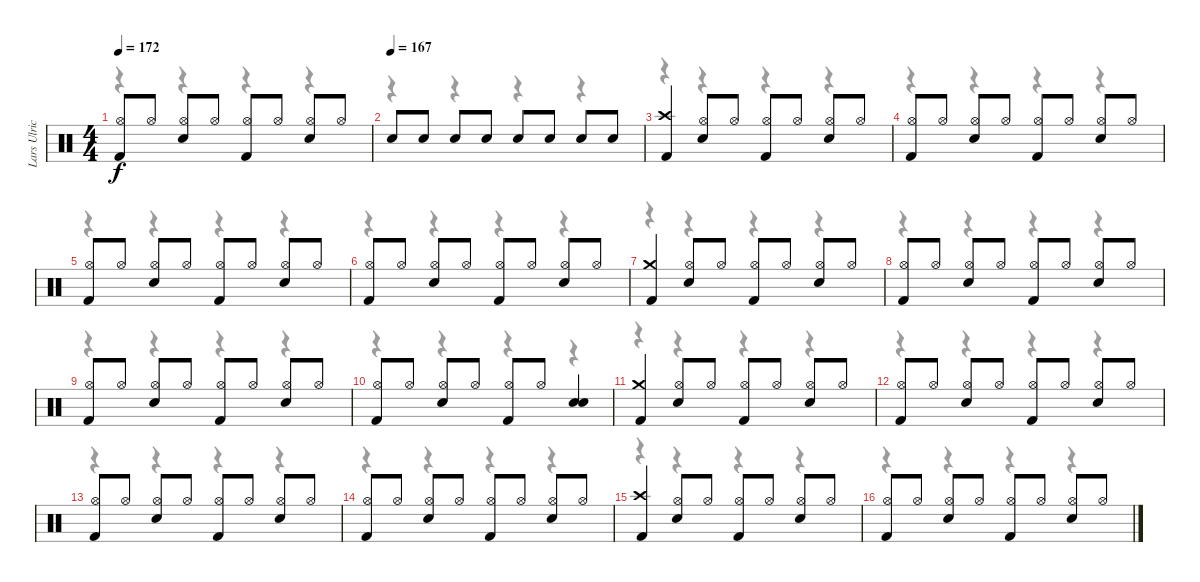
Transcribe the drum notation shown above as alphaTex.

\track ("Lars Ulrich" "Lars Ulric") {instrument percussion}
\staff {score}
\articulation defaults
\voice
\ts (4 4)
\tempo 172
\clef neutral
\ks c
("Kick (hit) 2" "Hi-Hat (open)").8{dy f} "Hi-Hat (open)".8 ("Hi-Hat (open)" "Snare (hit) 2").8 "Hi-Hat (open)".8 ("Hi-Hat (open)" "Kick (hit) 2").8 "Hi-Hat (open)".8 ("Hi-Hat (open)" "Snare (hit) 2").8 "Hi-Hat (open)".8 |
\tempo (167)
"Snare (hit) 2".8 "Snare (hit) 2".8 "Snare (hit) 2".8 "Snare (hit) 2".8 "Snare (hit) 2".8 "Snare (hit) 2".8 "Snare (hit) 2".8 "Snare (hit) 2".8 |
("Crash high (hit)" "Kick (hit) 2").4 ("Hi-Hat (open)" "Snare (hit) 2").8 "Hi-Hat (open)".8 ("Hi-Hat (open)" "Kick (hit) 2").8 "Hi-Hat (open)".8 ("Hi-Hat (open)" "Snare (hit) 2").8 "Hi-Hat (open)".8 |
("Hi-Hat (open)" "Kick (hit) 2").8 "Hi-Hat (open)".8 ("Hi-Hat (open)" "Snare (hit) 2").8 "Hi-Hat (open)".8 ("Hi-Hat (open)" "Kick (hit) 2").8 "Hi-Hat (open)".8 ("Hi-Hat (open)" "Snare (hit) 2").8 "Hi-Hat (open)".8 |
("Hi-Hat (open)" "Kick (hit) 2").8 "Hi-Hat (open)".8 ("Hi-Hat (open)" "Snare (hit) 2").8 "Hi-Hat (open)".8 ("Hi-Hat (open)" "Kick (hit) 2").8 "Hi-Hat (open)".8 ("Hi-Hat (open)" "Snare (hit) 2").8 "Hi-Hat (open)".8 |
("Hi-Hat (open)" "Kick (hit) 2").8 "Hi-Hat (open)".8 ("Hi-Hat (open)" "Snare (hit) 2").8 "Hi-Hat (open)".8 ("Hi-Hat (open)" "Kick (hit) 2").8 "Hi-Hat (open)".8 ("Hi-Hat (open)" "Snare (hit) 2").8 "Hi-Hat (open)".8 |
("Crash medium (hit)" "Kick (hit) 2").4 ("Hi-Hat (open)" "Snare (hit) 2").8 "Hi-Hat (open)".8 ("Hi-Hat (open)" "Kick (hit) 2").8 "Hi-Hat (open)".8 ("Hi-Hat (open)" "Snare (hit) 2").8 "Hi-Hat (open)".8 |
("Hi-Hat (open)" "Kick (hit) 2").8 "Hi-Hat (open)".8 ("Hi-Hat (open)" "Snare (hit) 2").8 "Hi-Hat (open)".8 ("Hi-Hat (open)" "Kick (hit) 2").8 "Hi-Hat (open)".8 ("Hi-Hat (open)" "Snare (hit) 2").8 "Hi-Hat (open)".8 |
("Hi-Hat (open)" "Kick (hit) 2").8 "Hi-Hat (open)".8 ("Hi-Hat (open)" "Snare (hit) 2").8 "Hi-Hat (open)".8 ("Hi-Hat (open)" "Kick (hit) 2").8 "Hi-Hat (open)".8 ("Hi-Hat (open)" "Snare (hit) 2").8 "Hi-Hat (open)".8 |
("Hi-Hat (open)" "Kick (hit) 2").8 "Hi-Hat (open)".8 ("Hi-Hat (open)" "Snare (hit) 2").8 "Hi-Hat (open)".8 ("Hi-Hat (open)" "Kick (hit) 2").8 "Hi-Hat (open)".8 ("Snare (hit) 2" "Snare (hit) 2").4 |
("Crash medium (hit)" "Kick (hit) 2").4 ("Hi-Hat (open)" "Snare (hit) 2").8 "Hi-Hat (open)".8 ("Hi-Hat (open)" "Kick (hit) 2").8 "Hi-Hat (open)".8 ("Hi-Hat (open)" "Snare (hit) 2").8 "Hi-Hat (open)".8 |
("Hi-Hat (open)" "Kick (hit) 2").8 "Hi-Hat (open)".8 ("Hi-Hat (open)" "Snare (hit) 2").8 "Hi-Hat (open)".8 ("Hi-Hat (open)" "Kick (hit) 2").8 "Hi-Hat (open)".8 ("Hi-Hat (open)" "Snare (hit) 2").8 "Hi-Hat (open)".8 |
("Hi-Hat (open)" "Kick (hit) 2").8 "Hi-Hat (open)".8 ("Hi-Hat (open)" "Snare (hit) 2").8 "Hi-Hat (open)".8 ("Hi-Hat (open)" "Kick (hit) 2").8 "Hi-Hat (open)".8 ("Hi-Hat (open)" "Snare (hit) 2").8 "Hi-Hat (open)".8 |
("Hi-Hat (open)" "Kick (hit) 2").8 "Hi-Hat (open)".8 ("Hi-Hat (open)" "Snare (hit) 2").8 "Hi-Hat (open)".8 ("Hi-Hat (open)" "Kick (hit) 2").8 "Hi-Hat (open)".8 ("Hi-Hat (open)" "Snare (hit) 2").8 "Hi-Hat (open)".8 |
("Crash high (hit)" "Kick (hit) 2").4 ("Hi-Hat (open)" "Snare (hit) 2").8 "Hi-Hat (open)".8 ("Hi-Hat (open)" "Kick (hit) 2").8 "Hi-Hat (open)".8 ("Hi-Hat (open)" "Snare (hit) 2").8 "Hi-Hat (open)".8 |
("Hi-Hat (open)" "Kick (hit) 2").8 "Hi-Hat (open)".8 ("Hi-Hat (open)" "Snare (hit) 2").8 "Hi-Hat (open)".8 ("Hi-Hat (open)" "Kick (hit) 2").8 "Hi-Hat (open)".8 ("Hi-Hat (open)" "Snare (hit) 2").8 "Hi-Hat (open)".8
\voice
\clef neutral
\ottava regular
\simile none
\ks c
r.4{dy f} r.4 r.4 r.4 |
r.4 r.4 r.4 r.4 |
r.4 r.4 r.4 r.4 |
r.4 r.4 r.4 r.4 |
r.4 r.4 r.4 r.4 |
r.4 r.4 r.4 r.4 |
r.4 r.4 r.4 r.4 |
r.4 r.4 r.4 r.4 |
r.4 r.4 r.4 r.4 |
r.4 r.4 r.4 r.4 |
r.4 r.4 r.4 r.4 |
r.4 r.4 r.4 r.4 |
r.4 r.4 r.4 r.4 |
r.4 r.4 r.4 r.4 |
r.4 r.4 r.4 r.4 |
r.4 r.4 r.4 r.4
